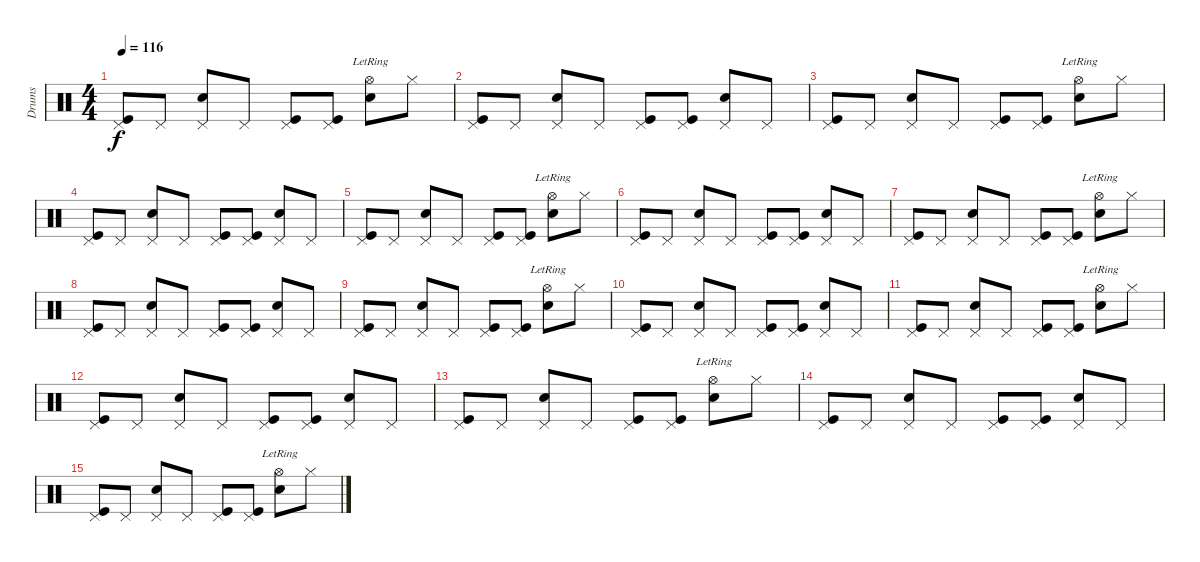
\track ("Drums" "Drums") {instrument percussion}
\staff {score}
\articulation defaults
\ts (4 4)
\tempo 116
\clef neutral
\ks c
("Pedal Hi-Hat (hit)" "Kick (hit)").8{dy f} "Pedal Hi-Hat (hit)".8 ("Pedal Hi-Hat (hit)" "Snare (hit) 2").8 "Pedal Hi-Hat (hit)".8 ("Pedal Hi-Hat (hit)" "Kick (hit)").8 ("Pedal Hi-Hat (hit)" "Kick (hit)").8 ("Hi-Hat (open)"{lr} "Snare (hit) 2").8 "Hi-Hat (closed)".8 |
("Pedal Hi-Hat (hit)" "Kick (hit)").8 "Pedal Hi-Hat (hit)".8 ("Pedal Hi-Hat (hit)" "Snare (hit) 2").8 "Pedal Hi-Hat (hit)".8 ("Pedal Hi-Hat (hit)" "Kick (hit)").8 ("Pedal Hi-Hat (hit)" "Kick (hit)").8 ("Pedal Hi-Hat (hit)" "Snare (hit) 2").8 "Pedal Hi-Hat (hit)".8 |
("Pedal Hi-Hat (hit)" "Kick (hit)").8 "Pedal Hi-Hat (hit)".8 ("Pedal Hi-Hat (hit)" "Snare (hit) 2").8 "Pedal Hi-Hat (hit)".8 ("Pedal Hi-Hat (hit)" "Kick (hit)").8 ("Pedal Hi-Hat (hit)" "Kick (hit)").8 ("Hi-Hat (open)"{lr} "Snare (hit) 2").8 "Hi-Hat (closed)".8 |
("Pedal Hi-Hat (hit)" "Kick (hit)").8 "Pedal Hi-Hat (hit)".8 ("Pedal Hi-Hat (hit)" "Snare (hit) 2").8 "Pedal Hi-Hat (hit)".8 ("Pedal Hi-Hat (hit)" "Kick (hit)").8 ("Pedal Hi-Hat (hit)" "Kick (hit)").8 ("Pedal Hi-Hat (hit)" "Snare (hit) 2").8 "Pedal Hi-Hat (hit)".8 |
("Pedal Hi-Hat (hit)" "Kick (hit)").8 "Pedal Hi-Hat (hit)".8 ("Pedal Hi-Hat (hit)" "Snare (hit) 2").8 "Pedal Hi-Hat (hit)".8 ("Pedal Hi-Hat (hit)" "Kick (hit)").8 ("Pedal Hi-Hat (hit)" "Kick (hit)").8 ("Hi-Hat (open)"{lr} "Snare (hit) 2").8 "Hi-Hat (closed)".8 |
("Pedal Hi-Hat (hit)" "Kick (hit)").8 "Pedal Hi-Hat (hit)".8 ("Pedal Hi-Hat (hit)" "Snare (hit) 2").8 "Pedal Hi-Hat (hit)".8 ("Pedal Hi-Hat (hit)" "Kick (hit)").8 ("Pedal Hi-Hat (hit)" "Kick (hit)").8 ("Pedal Hi-Hat (hit)" "Snare (hit) 2").8 "Pedal Hi-Hat (hit)".8 |
("Pedal Hi-Hat (hit)" "Kick (hit)").8 "Pedal Hi-Hat (hit)".8 ("Pedal Hi-Hat (hit)" "Snare (hit) 2").8 "Pedal Hi-Hat (hit)".8 ("Pedal Hi-Hat (hit)" "Kick (hit)").8 ("Pedal Hi-Hat (hit)" "Kick (hit)").8 ("Hi-Hat (open)"{lr} "Snare (hit) 2").8 "Hi-Hat (closed)".8 |
("Pedal Hi-Hat (hit)" "Kick (hit)").8 "Pedal Hi-Hat (hit)".8 ("Pedal Hi-Hat (hit)" "Snare (hit) 2").8 "Pedal Hi-Hat (hit)".8 ("Pedal Hi-Hat (hit)" "Kick (hit)").8 ("Pedal Hi-Hat (hit)" "Kick (hit)").8 ("Pedal Hi-Hat (hit)" "Snare (hit) 2").8 "Pedal Hi-Hat (hit)".8 |
("Pedal Hi-Hat (hit)" "Kick (hit)").8 "Pedal Hi-Hat (hit)".8 ("Pedal Hi-Hat (hit)" "Snare (hit) 2").8 "Pedal Hi-Hat (hit)".8 ("Pedal Hi-Hat (hit)" "Kick (hit)").8 ("Pedal Hi-Hat (hit)" "Kick (hit)").8 ("Hi-Hat (open)"{lr} "Snare (hit) 2").8 "Hi-Hat (closed)".8 |
("Pedal Hi-Hat (hit)" "Kick (hit)").8 "Pedal Hi-Hat (hit)".8 ("Pedal Hi-Hat (hit)" "Snare (hit) 2").8 "Pedal Hi-Hat (hit)".8 ("Pedal Hi-Hat (hit)" "Kick (hit)").8 ("Pedal Hi-Hat (hit)" "Kick (hit)").8 ("Pedal Hi-Hat (hit)" "Snare (hit) 2").8 "Pedal Hi-Hat (hit)".8 |
("Pedal Hi-Hat (hit)" "Kick (hit)").8 "Pedal Hi-Hat (hit)".8 ("Pedal Hi-Hat (hit)" "Snare (hit) 2").8 "Pedal Hi-Hat (hit)".8 ("Pedal Hi-Hat (hit)" "Kick (hit)").8 ("Pedal Hi-Hat (hit)" "Kick (hit)").8 ("Hi-Hat (open)"{lr} "Snare (hit) 2").8 "Hi-Hat (closed)".8 |
("Pedal Hi-Hat (hit)" "Kick (hit)").8 "Pedal Hi-Hat (hit)".8 ("Pedal Hi-Hat (hit)" "Snare (hit) 2").8 "Pedal Hi-Hat (hit)".8 ("Pedal Hi-Hat (hit)" "Kick (hit)").8 ("Pedal Hi-Hat (hit)" "Kick (hit)").8 ("Pedal Hi-Hat (hit)" "Snare (hit) 2").8 "Pedal Hi-Hat (hit)".8 |
("Pedal Hi-Hat (hit)" "Kick (hit)").8 "Pedal Hi-Hat (hit)".8 ("Pedal Hi-Hat (hit)" "Snare (hit) 2").8 "Pedal Hi-Hat (hit)".8 ("Pedal Hi-Hat (hit)" "Kick (hit)").8 ("Pedal Hi-Hat (hit)" "Kick (hit)").8 ("Hi-Hat (open)"{lr} "Snare (hit) 2").8 "Hi-Hat (closed)".8 |
("Pedal Hi-Hat (hit)" "Kick (hit)").8 "Pedal Hi-Hat (hit)".8 ("Pedal Hi-Hat (hit)" "Snare (hit) 2").8 "Pedal Hi-Hat (hit)".8 ("Pedal Hi-Hat (hit)" "Kick (hit)").8 ("Pedal Hi-Hat (hit)" "Kick (hit)").8 ("Pedal Hi-Hat (hit)" "Snare (hit) 2").8 "Pedal Hi-Hat (hit)".8 |
("Pedal Hi-Hat (hit)" "Kick (hit)").8 "Pedal Hi-Hat (hit)".8 ("Pedal Hi-Hat (hit)" "Snare (hit) 2").8 "Pedal Hi-Hat (hit)".8 ("Pedal Hi-Hat (hit)" "Kick (hit)").8 ("Pedal Hi-Hat (hit)" "Kick (hit)").8 ("Hi-Hat (open)"{lr} "Snare (hit) 2").8 "Hi-Hat (closed)".8
